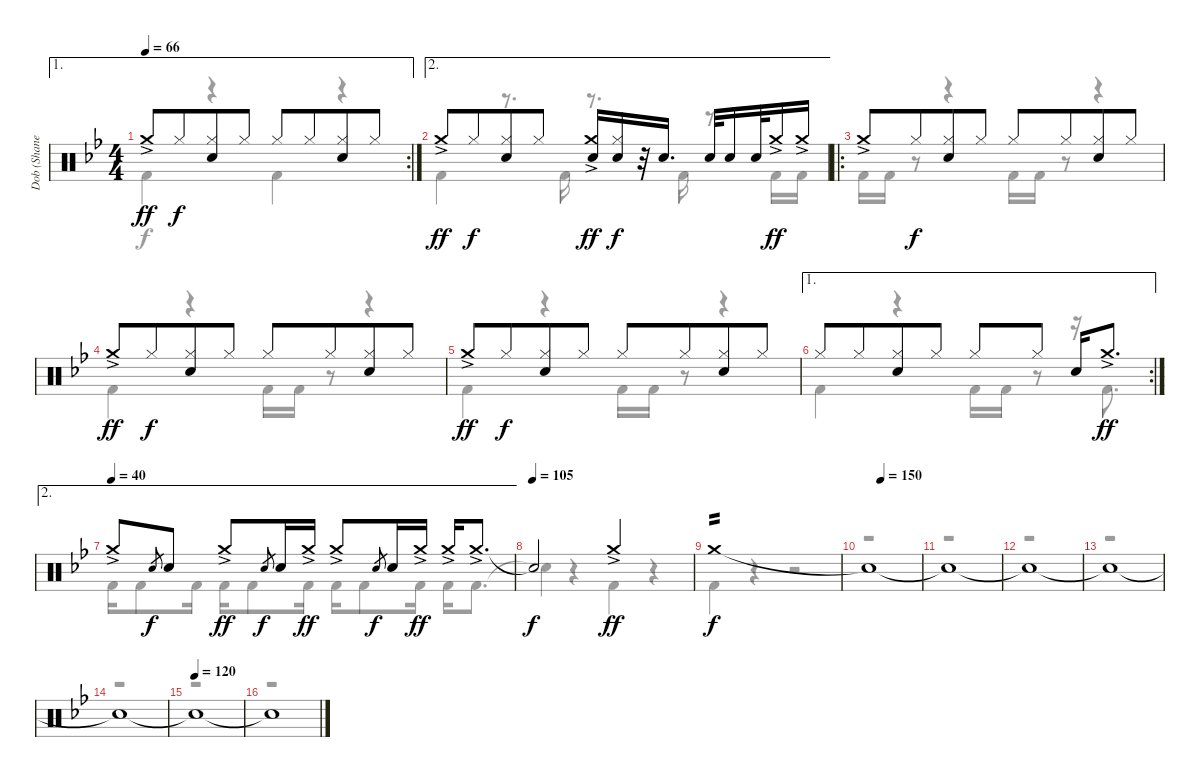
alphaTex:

\track ("Dob (Shane Gaalaas)" "Dob (Shane") {instrument percussion}
\staff {score}
\articulation defaults
\voice
\ae 1
\rc 2
\ts (4 4)
\tempo 66
\clef neutral
\ks bb "Crash medium (hit)"{ac}.8{dy ff beam merge} "Hi-Hat (closed)".8{dy f beam merge}
("Hi-Hat (closed)" "Electric Snare (hit)").8 "Hi-Hat (closed)".8 "Hi-Hat (closed)".8 "Hi-Hat (closed)".8{beam merge} ("Hi-Hat (closed)" "Electric Snare (hit)").8 "Hi-Hat (closed)".8 |
\ae 2 "Crash medium (hit)"{ac}.8{dy ff beam merge} "Hi-Hat (closed)".8{dy f beam merge}
("Hi-Hat (closed)" "Electric Snare (hit)").8 "Hi-Hat (closed)".8 ("Crash medium (hit)"{ac} "Electric Snare (hit)").16{dy ff} ("Hi-Hat (closed)" "Electric Snare (hit)").16{dy f} r.32 "Electric Snare (hit)".16{d} "Electric Snare (hit)".32 "Electric Snare (hit)".16 "Electric Snare (hit)".32 "Crash medium (hit)"{ac}.16{dy ff} "Crash medium (hit)"{ac}.16 |
\ro "Crash medium (hit)"{ac}.8 "Hi-Hat (closed)".8{dy f beam merge}
("Hi-Hat (closed)" "Electric Snare (hit)").8 "Hi-Hat (closed)".8 "Hi-Hat (closed)".8 "Hi-Hat (closed)".8{beam merge} ("Hi-Hat (closed)" "Electric Snare (hit)").8 "Hi-Hat (closed)".8 |
"Crash medium (hit)"{ac}.8{dy ff} "Hi-Hat (closed)".8{dy f beam merge} ("Hi-Hat (closed)" "Electric Snare (hit)").8 "Hi-Hat (closed)".8 "Hi-Hat (closed)".8 "Hi-Hat (closed)".8{beam merge} ("Hi-Hat (closed)" "Electric Snare (hit)").8 "Hi-Hat (closed)".8 |
"Crash medium (hit)"{ac}.8{dy ff} "Hi-Hat (closed)".8{dy f beam merge} ("Hi-Hat (closed)" "Electric Snare (hit)").8 "Hi-Hat (closed)".8 "Hi-Hat (closed)".8 "Hi-Hat (closed)".8{beam merge} ("Hi-Hat (closed)" "Electric Snare (hit)").8 "Hi-Hat (closed)".8 |
\ae 1
\rc 2 "Hi-Hat (closed)".8 "Hi-Hat (closed)".8{beam merge}
("Hi-Hat (closed)" "Electric Snare (hit)").8 "Hi-Hat (closed)".8 "Hi-Hat (closed)".8 "Hi-Hat (closed)".8 "Electric Snare (hit)".16 "Crash medium (hit)"{ac}.8{d dy ff} |
\ae 2
\tempo (40)
"Crash medium (hit)"{ac}.8 "Electric Snare (hit)".8{gr dy f} "Electric Snare (hit)".8 "Crash medium (hit)"{ac}.8{dy ff} "Electric Snare (hit)".8{gr dy f} "Electric Snare (hit)".16 "Crash medium (hit)"{ac}.16{dy ff} "Crash medium (hit)"{ac}.8 "Electric Snare (hit)".8{gr dy f} "Electric Snare (hit)".16 "Crash medium (hit)"{ac}.16{dy ff} "Crash medium (hit)"{ac}.16 "Crash medium (hit)"{ac}.8{d} |
\tempo (105)
"Snare (hit)"{t}.2{dy f} "Crash medium (hit)"{ac}.2{dy ff} |
"Crash medium (hit)".1{tp 2 dy f} |
\tempo (150 0.25)
"Snare (hit)"{t}.1 |
"Snare (hit)"{t}.1 |
"Snare (hit)"{t}.1 |
"Snare (hit)"{t}.1 |
"Snare (hit)"{t}.1 |
\tempo (120)
"Snare (hit)"{t}.1 |
"Snare (hit)"{t}.1
\voice
\clef neutral
\ottava regular
\simile none
\ks bb "Kick (hit) 2".4{dy f}
r.4 "Kick (hit) 2".4 r.4 |
"Kick (hit) 2".4 r.8{d} "Kick (hit) 2".16 r.8{d} "Kick (hit) 2".16 r.8 "Kick (hit) 2".16 "Kick (hit) 2".16 |
"Kick (hit) 2".16 "Kick (hit) 2".16 r.8 r.4 "Kick (hit) 2".16 "Kick (hit) 2".16 r.8 r.4 |
"Kick (hit) 2".4 r.4 "Kick (hit) 2".16 "Kick (hit) 2".16 r.8 r.4 |
"Kick (hit) 2".4 r.4 "Kick (hit) 2".16 "Kick (hit) 2".16 r.8 r.4 |
"Kick (hit) 2".4 r.4 "Kick (hit) 2".16 "Kick (hit) 2".16 r.8 r.16 "Kick (hit) 2".8{d} |
"Kick (hit) 2".16 "Kick (hit) 2".8 "Kick (hit) 2".16 "Kick (hit) 2".16 "Kick (hit) 2".8 "Kick (hit) 2".16 "Kick (hit) 2".16 "Kick (hit) 2".8 "Kick (hit) 2".16 "Kick (hit) 2".16 "Kick (hit) 2".8{d} |
"Snare (hit)"{t}.4 r.4 "Kick (hit) 2".4 r.4 |
"Kick (hit) 2".4 r.4 r.2 |
r.1 |
r.1 |
r.1 |
r.1 |
r.1 |
r.1 |
r.1
